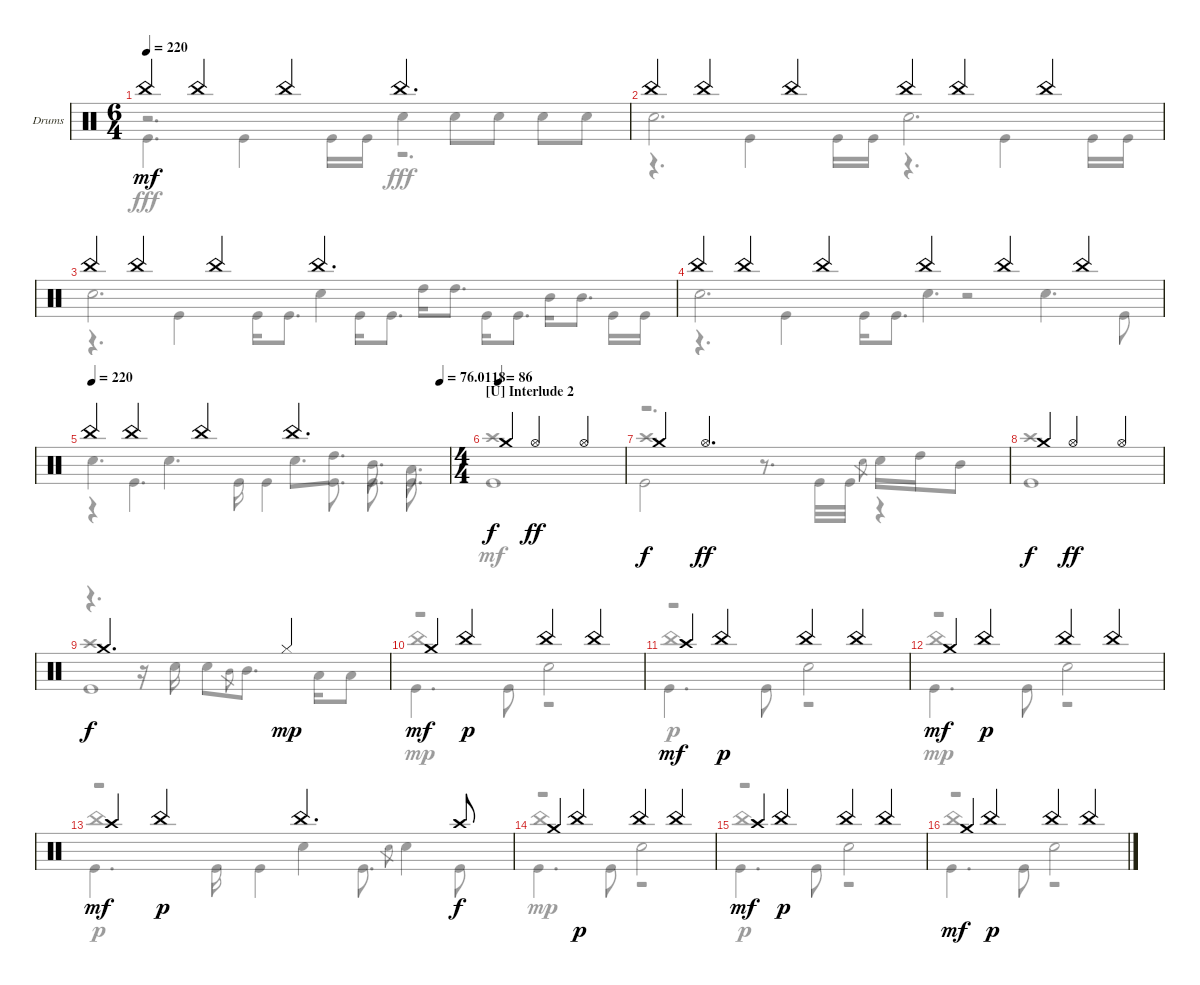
\defaultSystemsLayout 4
\bracketExtendMode groupsimilarinstruments
\firstSystemTrackNameOrientation horizontal
\otherSystemsTrackNameOrientation horizontal
\track ("Drumkit" "Drums") {instrument percussion}
\staff {score}
\articulation defaults
\voice
\ts (6 4)
\tempo 220
\clef neutral
\ks c "China (hit)".4{dy mf} "China (hit)".4 "China (hit)".4 "China (hit)".2{d}
|
"China (hit)".4 "China (hit)".4 "China (hit)".4 "China (hit)".4 "China (hit)".4 "China (hit)".4 |
"China (hit)".4 "China (hit)".4 "China (hit)".4 "China (hit)".2{d} |
"China (hit)".4 "China (hit)".4 "China (hit)".4 "China (hit)".4 "China (hit)".4 "China (hit)".4 |
\tempo 220
\tempo (76.0118 0.975)
"China (hit)".4 "China (hit)".4 "China (hit)".4 "China (hit)".2{d} |
\ts (4 4)
\section ("U" "Interlude 2")
\tempo (86)
"Crash medium (hit)".4{dy f} "Hi-Hat (open)".2{dy ff} "Hi-Hat (open)".4 |
"Crash medium (hit)".4{dy f} "Hi-Hat (open)".2{d dy ff} |
"Crash medium (hit)".4{dy f} "Hi-Hat (open)".2{dy ff} "Hi-Hat (open)".4 |
"Crash medium (hit)".2{d dy f} "Hi-Hat (closed)".4{dy mp} |
"Crash medium (hit)".4{dy mf} "China (hit)".4{dy p} "China (hit)".4 "China (hit)".4 |
"Crash high (hit)".4{dy mf} "China (hit)".4{dy p} "China (hit)".4 "China (hit)".4 |
"Crash medium (hit)".4{dy mf} "China (hit)".4{dy p} "China (hit)".4 "China (hit)".4 |
"Crash high (hit)".4{dy mf} "China (hit)".4{dy p} "China (hit)".4{d} "Crash high (hit)".8{dy f} |
"Crash medium (hit)".4 "China (hit)".4{dy p} "China (hit)".4 "China (hit)".4 |
"Crash high (hit)".4{dy mf} "China (hit)".4{dy p} "China (hit)".4 "China (hit)".4 |
"Crash medium (hit)".4{dy mf} "China (hit)".4{dy p} "China (hit)".4 "China (hit)".4
\voice
\clef neutral
\ottava regular
\simile none
\ks c
r.2{d dy fff} "Snare (hit) 2".4 "Snare (hit) 2".8 "Snare (hit) 2".8 "Snare (hit) 2".8 "Snare (hit) 2".8 |
"Snare (hit) 2".2{d} "Snare (hit) 2".2{d} |
"Snare (hit) 2".2{d} "Snare (hit) 2".4 "High Tom (hit)".16 "High Tom (hit)".8{d} "Mid Tom (hit)".16 "Mid Tom (hit)".8{d} |
"Snare (hit) 2".2{d} "Snare (hit) 2".4{d} "Snare (hit) 2".4{d} |
"Snare (hit) 2".4{d} "Snare (hit) 2".4{d} "Snare (hit) 2".8{d} "High Tom (hit)".8{d} "Mid Tom (hit)".8{d} "Low Tom (hit)".8{d} |
|
r.2{d} "Snare (hit) 2".8{gr} "Snare (hit) 2".16 "High Tom (hit)".16 "Mid Tom (hit)".8 |
|
r.4{d} r.16 "Snare (hit) 2".16 "Snare (hit) 2".8 "Mid Tom (hit)".8{gr} "Mid Tom (hit)".8{d} "Low Tom (hit)".16 "Low Tom (hit)".8 |
r.2 "Snare (hit) 2".2 |
r.2 "Snare (hit) 2".2 |
r.2 "Snare (hit) 2".2 |
r.2 "Snare (hit) 2".4 "Snare (hit) 2".8{gr} "Snare (hit) 2".4 |
r.2 "Snare (hit) 2".2 |
r.2 "Snare (hit) 2".2 |
r.2 "Snare (hit) 2".2
\voice
\clef neutral
\ottava regular
\simile none
\ks c "Kick (hit)".4{d dy fff} "Kick (hit)".4 "Kick (hit)".16 "Kick (hit)".16
r.2{d} |
r.4{d} "Kick (hit)".4 "Kick (hit)".16 "Kick (hit)".16 r.4{d} "Kick (hit)".4 "Kick (hit)".16 "Kick (hit)".16 |
r.4{d} "Kick (hit)".4 "Kick (hit)".16 "Kick (hit)".8{d} "Kick (hit)".16 "Kick (hit)".8{d} "Kick (hit)".16 "Kick (hit)".8{d} "Kick (hit)".16 "Kick (hit)".16 |
r.4{d} "Kick (hit)".4 "Kick (hit)".16 "Kick (hit)".8{d} r.2 "Kick (hit)".8 |
r.4 "Kick (hit)".4{d} "Kick (hit)".16 "Kick (hit)".4 "Kick (hit)".8{d} "Kick (hit)".8{d} "Kick (hit)".8{d} |
"Kick (hit)".1 |
"Kick (hit)".2 r.8{d} "Kick (hit)".32 "Kick (hit)".32 r.4 |
"Kick (hit)".1 |
"Kick (hit)".1 |
"Kick (hit)".4{d} "Kick (hit)".8 r.2 |
"Kick (hit)".4{d} "Kick (hit)".8 r.2 |
"Kick (hit)".4{d} "Kick (hit)".8 r.2 |
"Kick (hit)".4{d} "Kick (hit)".16 "Kick (hit)".4 "Kick (hit)".8{d} "Kick (hit)".8 |
"Kick (hit)".4{d} "Kick (hit)".8 r.2 |
"Kick (hit)".4{d} "Kick (hit)".8 r.2 |
"Kick (hit)".4{d} "Kick (hit)".8 r.2
\voice
\clef neutral
\ottava regular
\simile none
\ks c
|
|
|
|
|
"Crash high (hit)".1{dy mf} |
"Crash high (hit)".1 |
"Crash high (hit)".1 |
"Crash high (hit)".1 |
"China (hit)".1{dy mp} |
"China (hit)".1{dy p} |
"China (hit)".1{dy mp} |
"China (hit)".1{dy p} |
"China (hit)".1{dy mp} |
"China (hit)".1{dy p} |
"China (hit)".1
